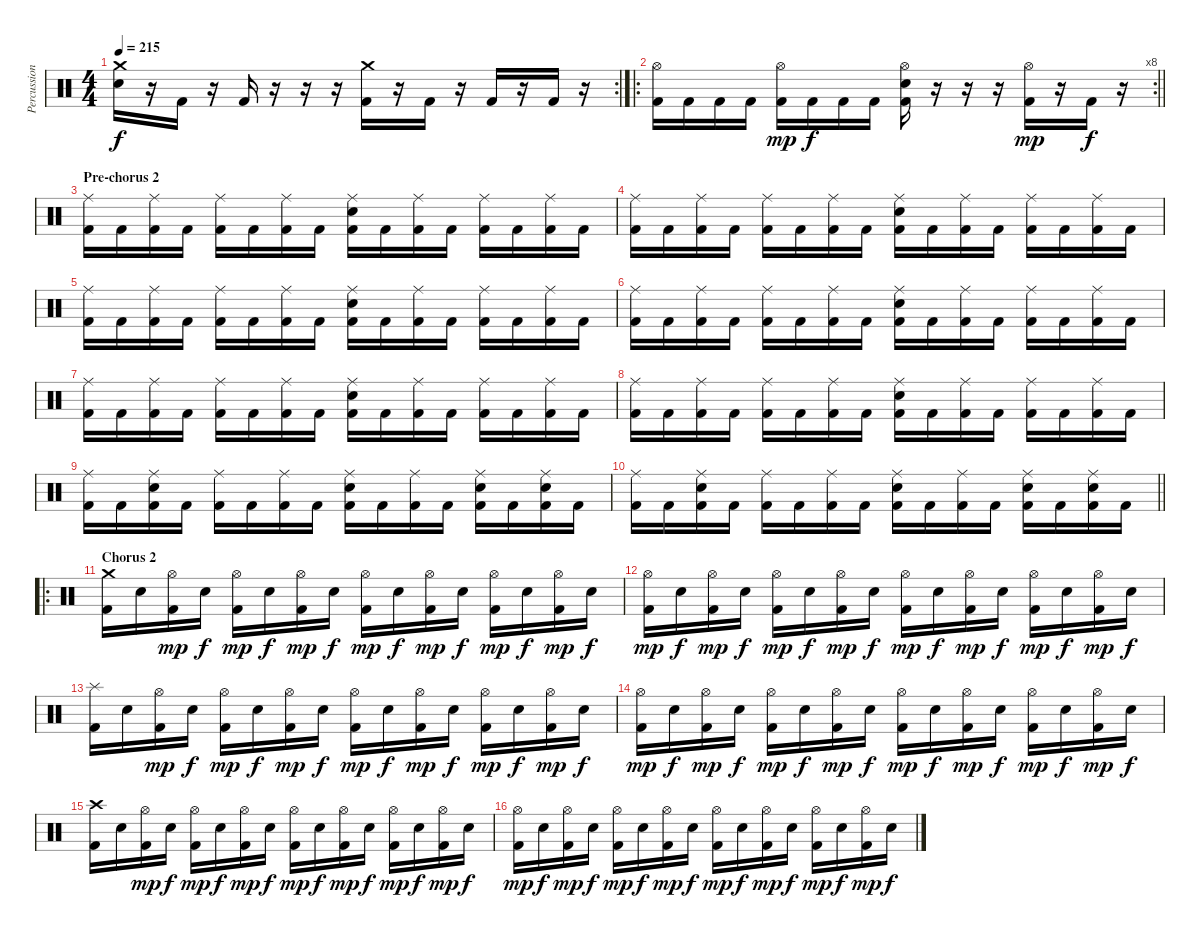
\track ("Percussion" "Percussion") {instrument percussion}
\staff {score}
\articulation defaults
\rc 2
\ts (4 4)
\tempo 215
\clef neutral
\ks c
("Crash medium (hit)" "Electric Snare (hit)").16{dy f} r.16 "Kick (hit) 2".16 r.16 "Kick (hit) 2".16 r.16 r.16 r.16 ("Crash medium (hit)" "Kick (hit) 2").16 r.16 "Kick (hit) 2".16 r.16 "Kick (hit) 2".16 r.16 "Kick (hit) 2".16 r.16 |
\ro
\rc 8
\barLineRight lightlight
("Hi-Hat (open)" "Kick (hit) 2").16 "Kick (hit) 2".16 "Kick (hit) 2".16 "Kick (hit) 2".16 ("Hi-Hat (open)" "Kick (hit) 2").16{dy mp} "Kick (hit) 2".16{dy f} "Kick (hit) 2".16 "Kick (hit) 2".16 ("Hi-Hat (open)" "Electric Snare (hit)" "Kick (hit) 2").16 r.16 r.16 r.16 ("Hi-Hat (open)" "Kick (hit) 2").16{dy mp} r.16 "Kick (hit) 2".16{dy f} r.16 |
\section ("" "Pre-chorus 2")
("Ride (middle)" "Kick (hit) 2").16 "Kick (hit) 2".16 ("Ride (middle)" "Kick (hit) 2").16 "Kick (hit) 2".16 ("Ride (middle)" "Kick (hit) 2").16 "Kick (hit) 2".16 ("Ride (middle)" "Kick (hit) 2").16 "Kick (hit) 2".16 ("Ride (middle)" "Electric Snare (hit)" "Kick (hit) 2").16 "Kick (hit) 2".16 ("Ride (middle)" "Kick (hit) 2").16 "Kick (hit) 2".16 ("Ride (middle)" "Kick (hit) 2").16 "Kick (hit) 2".16 ("Ride (middle)" "Kick (hit) 2").16 "Kick (hit) 2".16 |
("Ride (middle)" "Kick (hit) 2").16 "Kick (hit) 2".16 ("Ride (middle)" "Kick (hit) 2").16 "Kick (hit) 2".16 ("Ride (middle)" "Kick (hit) 2").16 "Kick (hit) 2".16 ("Ride (middle)" "Kick (hit) 2").16 "Kick (hit) 2".16 ("Ride (middle)" "Electric Snare (hit)" "Kick (hit) 2").16 "Kick (hit) 2".16 ("Ride (middle)" "Kick (hit) 2").16 "Kick (hit) 2".16 ("Ride (middle)" "Kick (hit) 2").16 "Kick (hit) 2".16 ("Ride (middle)" "Kick (hit) 2").16 "Kick (hit) 2".16 |
("Ride (middle)" "Kick (hit) 2").16 "Kick (hit) 2".16 ("Ride (middle)" "Kick (hit) 2").16 "Kick (hit) 2".16 ("Ride (middle)" "Kick (hit) 2").16 "Kick (hit) 2".16 ("Ride (middle)" "Kick (hit) 2").16 "Kick (hit) 2".16 ("Ride (middle)" "Electric Snare (hit)" "Kick (hit) 2").16 "Kick (hit) 2".16 ("Ride (middle)" "Kick (hit) 2").16 "Kick (hit) 2".16 ("Ride (middle)" "Kick (hit) 2").16 "Kick (hit) 2".16 ("Ride (middle)" "Kick (hit) 2").16 "Kick (hit) 2".16 |
("Ride (middle)" "Kick (hit) 2").16 "Kick (hit) 2".16 ("Ride (middle)" "Kick (hit) 2").16 "Kick (hit) 2".16 ("Ride (middle)" "Kick (hit) 2").16 "Kick (hit) 2".16 ("Ride (middle)" "Kick (hit) 2").16 "Kick (hit) 2".16 ("Ride (middle)" "Electric Snare (hit)" "Kick (hit) 2").16 "Kick (hit) 2".16 ("Ride (middle)" "Kick (hit) 2").16 "Kick (hit) 2".16 ("Ride (middle)" "Kick (hit) 2").16 "Kick (hit) 2".16 ("Ride (middle)" "Kick (hit) 2").16 "Kick (hit) 2".16 |
("Ride (middle)" "Kick (hit) 2").16 "Kick (hit) 2".16 ("Ride (middle)" "Kick (hit) 2").16 "Kick (hit) 2".16 ("Ride (middle)" "Kick (hit) 2").16 "Kick (hit) 2".16 ("Ride (middle)" "Kick (hit) 2").16 "Kick (hit) 2".16 ("Ride (middle)" "Electric Snare (hit)" "Kick (hit) 2").16 "Kick (hit) 2".16 ("Ride (middle)" "Kick (hit) 2").16 "Kick (hit) 2".16 ("Ride (middle)" "Kick (hit) 2").16 "Kick (hit) 2".16 ("Ride (middle)" "Kick (hit) 2").16 "Kick (hit) 2".16 |
("Ride (middle)" "Kick (hit) 2").16 "Kick (hit) 2".16 ("Ride (middle)" "Kick (hit) 2").16 "Kick (hit) 2".16 ("Ride (middle)" "Kick (hit) 2").16 "Kick (hit) 2".16 ("Ride (middle)" "Kick (hit) 2").16 "Kick (hit) 2".16 ("Ride (middle)" "Electric Snare (hit)" "Kick (hit) 2").16 "Kick (hit) 2".16 ("Ride (middle)" "Kick (hit) 2").16 "Kick (hit) 2".16 ("Ride (middle)" "Kick (hit) 2").16 "Kick (hit) 2".16 ("Ride (middle)" "Kick (hit) 2").16 "Kick (hit) 2".16 |
("Ride (middle)" "Kick (hit) 2").16 "Kick (hit) 2".16 ("Ride (middle)" "Electric Snare (hit)" "Kick (hit) 2").16 "Kick (hit) 2".16 ("Ride (middle)" "Kick (hit) 2").16 "Kick (hit) 2".16 ("Ride (middle)" "Kick (hit) 2").16 "Kick (hit) 2".16 ("Ride (middle)" "Electric Snare (hit)" "Kick (hit) 2").16 "Kick (hit) 2".16 ("Ride (middle)" "Kick (hit) 2").16 "Kick (hit) 2".16 ("Ride (middle)" "Electric Snare (hit)" "Kick (hit) 2").16 "Kick (hit) 2".16 ("Ride (middle)" "Electric Snare (hit)" "Kick (hit) 2").16 "Kick (hit) 2".16 |
\barLineRight lightlight
("Ride (middle)" "Kick (hit) 2").16 "Kick (hit) 2".16 ("Ride (middle)" "Electric Snare (hit)" "Kick (hit) 2").16 "Kick (hit) 2".16 ("Ride (middle)" "Kick (hit) 2").16 "Kick (hit) 2".16 ("Ride (middle)" "Kick (hit) 2").16 "Kick (hit) 2".16 ("Ride (middle)" "Electric Snare (hit)" "Kick (hit) 2").16 "Kick (hit) 2".16 ("Ride (middle)" "Kick (hit) 2").16 "Kick (hit) 2".16 ("Ride (middle)" "Electric Snare (hit)" "Kick (hit) 2").16 "Kick (hit) 2".16 ("Ride (middle)" "Electric Snare (hit)" "Kick (hit) 2").16 "Kick (hit) 2".16 |
\ro
\section ("" "Chorus 2")
("Crash medium (hit)" "Kick (hit) 2").16 "Electric Snare (hit)".16 ("Hi-Hat (open)" "Kick (hit) 2").16{dy mp} "Electric Snare (hit)".16{dy f} ("Hi-Hat (open)" "Kick (hit) 2").16{dy mp} "Electric Snare (hit)".16{dy f} ("Hi-Hat (open)" "Kick (hit) 2").16{dy mp} "Electric Snare (hit)".16{dy f} ("Hi-Hat (open)" "Kick (hit) 2").16{dy mp} "Electric Snare (hit)".16{dy f} ("Hi-Hat (open)" "Kick (hit) 2").16{dy mp} "Electric Snare (hit)".16{dy f} ("Hi-Hat (open)" "Kick (hit) 2").16{dy mp} "Electric Snare (hit)".16{dy f} ("Hi-Hat (open)" "Kick (hit) 2").16{dy mp} "Electric Snare (hit)".16{dy f} |
("Hi-Hat (open)" "Kick (hit) 2").16{dy mp} "Electric Snare (hit)".16{dy f} ("Hi-Hat (open)" "Kick (hit) 2").16{dy mp} "Electric Snare (hit)".16{dy f} ("Hi-Hat (open)" "Kick (hit) 2").16{dy mp} "Electric Snare (hit)".16{dy f} ("Hi-Hat (open)" "Kick (hit) 2").16{dy mp} "Electric Snare (hit)".16{dy f} ("Hi-Hat (open)" "Kick (hit) 2").16{dy mp} "Electric Snare (hit)".16{dy f} ("Hi-Hat (open)" "Kick (hit) 2").16{dy mp} "Electric Snare (hit)".16{dy f} ("Hi-Hat (open)" "Kick (hit) 2").16{dy mp} "Electric Snare (hit)".16{dy f} ("Hi-Hat (open)" "Kick (hit) 2").16{dy mp} "Electric Snare (hit)".16{dy f} |
("Splash (hit)" "Kick (hit) 2").16 "Electric Snare (hit)".16 ("Hi-Hat (open)" "Kick (hit) 2").16{dy mp} "Electric Snare (hit)".16{dy f} ("Hi-Hat (open)" "Kick (hit) 2").16{dy mp} "Electric Snare (hit)".16{dy f} ("Hi-Hat (open)" "Kick (hit) 2").16{dy mp} "Electric Snare (hit)".16{dy f} ("Hi-Hat (open)" "Kick (hit) 2").16{dy mp} "Electric Snare (hit)".16{dy f} ("Hi-Hat (open)" "Kick (hit) 2").16{dy mp} "Electric Snare (hit)".16{dy f} ("Hi-Hat (open)" "Kick (hit) 2").16{dy mp} "Electric Snare (hit)".16{dy f} ("Hi-Hat (open)" "Kick (hit) 2").16{dy mp} "Electric Snare (hit)".16{dy f} |
("Hi-Hat (open)" "Kick (hit) 2").16{dy mp} "Electric Snare (hit)".16{dy f} ("Hi-Hat (open)" "Kick (hit) 2").16{dy mp} "Electric Snare (hit)".16{dy f} ("Hi-Hat (open)" "Kick (hit) 2").16{dy mp} "Electric Snare (hit)".16{dy f} ("Hi-Hat (open)" "Kick (hit) 2").16{dy mp} "Electric Snare (hit)".16{dy f} ("Hi-Hat (open)" "Kick (hit) 2").16{dy mp} "Electric Snare (hit)".16{dy f} ("Hi-Hat (open)" "Kick (hit) 2").16{dy mp} "Electric Snare (hit)".16{dy f} ("Hi-Hat (open)" "Kick (hit) 2").16{dy mp} "Electric Snare (hit)".16{dy f} ("Hi-Hat (open)" "Kick (hit) 2").16{dy mp} "Electric Snare (hit)".16{dy f} |
("Crash high (hit)" "Kick (hit) 2").16 "Electric Snare (hit)".16 ("Hi-Hat (open)" "Kick (hit) 2").16{dy mp} "Electric Snare (hit)".16{dy f} ("Hi-Hat (open)" "Kick (hit) 2").16{dy mp} "Electric Snare (hit)".16{dy f} ("Hi-Hat (open)" "Kick (hit) 2").16{dy mp} "Electric Snare (hit)".16{dy f} ("Hi-Hat (open)" "Kick (hit) 2").16{dy mp} "Electric Snare (hit)".16{dy f} ("Hi-Hat (open)" "Kick (hit) 2").16{dy mp} "Electric Snare (hit)".16{dy f} ("Hi-Hat (open)" "Kick (hit) 2").16{dy mp} "Electric Snare (hit)".16{dy f} ("Hi-Hat (open)" "Kick (hit) 2").16{dy mp} "Electric Snare (hit)".16{dy f} |
("Hi-Hat (open)" "Kick (hit) 2").16{dy mp} "Electric Snare (hit)".16{dy f} ("Hi-Hat (open)" "Kick (hit) 2").16{dy mp} "Electric Snare (hit)".16{dy f} ("Hi-Hat (open)" "Kick (hit) 2").16{dy mp} "Electric Snare (hit)".16{dy f} ("Hi-Hat (open)" "Kick (hit) 2").16{dy mp} "Electric Snare (hit)".16{dy f} ("Hi-Hat (open)" "Kick (hit) 2").16{dy mp} "Electric Snare (hit)".16{dy f} ("Hi-Hat (open)" "Kick (hit) 2").16{dy mp} "Electric Snare (hit)".16{dy f} ("Hi-Hat (open)" "Kick (hit) 2").16{dy mp} "Electric Snare (hit)".16{dy f} ("Hi-Hat (open)" "Kick (hit) 2").16{dy mp} "Electric Snare (hit)".16{dy f}
